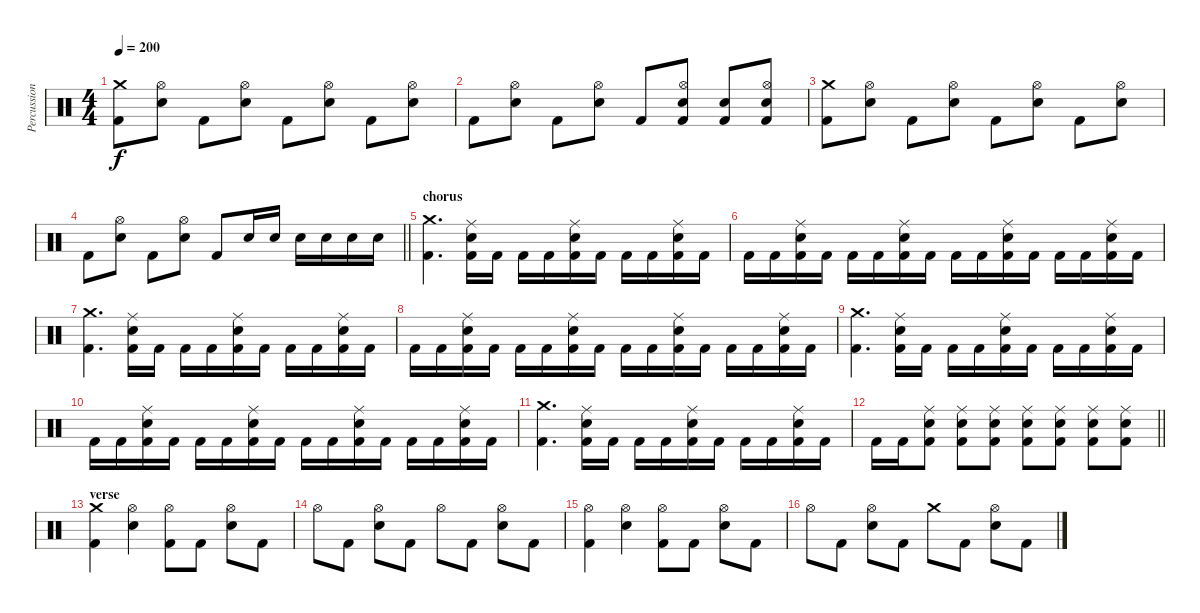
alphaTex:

\track ("Percussion" "Percussion") {instrument percussion}
\staff {score}
\articulation defaults
\ts (4 4)
\tempo 200
\clef neutral
\ks c
("Crash medium (hit)" "Kick (hit) 2").8{dy f} ("Hi-Hat (open)" "Electric Snare (hit)").8 "Kick (hit) 2".8 ("Hi-Hat (open)" "Electric Snare (hit)").8 "Kick (hit) 2".8 ("Hi-Hat (open)" "Electric Snare (hit)").8 "Kick (hit) 2".8 ("Hi-Hat (open)" "Electric Snare (hit)").8 |
"Kick (hit) 2".8 ("Hi-Hat (open)" "Electric Snare (hit)").8 "Kick (hit) 2".8 ("Hi-Hat (open)" "Electric Snare (hit)").8 "Kick (hit) 2".8 ("Hi-Hat (open)" "Electric Snare (hit)" "Kick (hit) 2").8 ("Electric Snare (hit)" "Kick (hit) 2").8 ("Hi-Hat (open)" "Electric Snare (hit)" "Kick (hit) 2").8 |
("Crash medium (hit)" "Kick (hit) 2").8 ("Hi-Hat (open)" "Electric Snare (hit)").8 "Kick (hit) 2".8 ("Hi-Hat (open)" "Electric Snare (hit)").8 "Kick (hit) 2".8 ("Hi-Hat (open)" "Electric Snare (hit)").8 "Kick (hit) 2".8 ("Hi-Hat (open)" "Electric Snare (hit)").8 |
\barLineRight lightlight "Kick (hit) 2".8
("Hi-Hat (open)" "Electric Snare (hit)").8 "Kick (hit) 2".8 ("Hi-Hat (open)" "Electric Snare (hit)").8 "Kick (hit) 2".8 "Electric Snare (hit)".16 "Electric Snare (hit)".16 "Electric Snare (hit)".16 "Electric Snare (hit)".16 "Electric Snare (hit)".16 "Electric Snare (hit)".16 |
\section ("" "chorus")
("Crash medium (hit)" "Kick (hit) 2").4{d} ("Ride (middle)" "Electric Snare (hit)" "Kick (hit) 2").16 "Kick (hit) 2".16 "Kick (hit) 2".16 "Kick (hit) 2".16 ("Ride (middle)" "Electric Snare (hit)" "Kick (hit) 2").16 "Kick (hit) 2".16 "Kick (hit) 2".16 "Kick (hit) 2".16 ("Ride (middle)" "Electric Snare (hit)" "Kick (hit) 2").16 "Kick (hit) 2".16 |
"Kick (hit) 2".16 "Kick (hit) 2".16 ("Ride (middle)" "Electric Snare (hit)" "Kick (hit) 2").16 "Kick (hit) 2".16 "Kick (hit) 2".16 "Kick (hit) 2".16 ("Ride (middle)" "Electric Snare (hit)" "Kick (hit) 2").16 "Kick (hit) 2".16 "Kick (hit) 2".16 "Kick (hit) 2".16 ("Ride (middle)" "Electric Snare (hit)" "Kick (hit) 2").16 "Kick (hit) 2".16 "Kick (hit) 2".16 "Kick (hit) 2".16 ("Ride (middle)" "Electric Snare (hit)" "Kick (hit) 2").16 "Kick (hit) 2".16 |
("Crash medium (hit)" "Kick (hit) 2").4{d} ("Ride (middle)" "Electric Snare (hit)" "Kick (hit) 2").16 "Kick (hit) 2".16 "Kick (hit) 2".16 "Kick (hit) 2".16 ("Ride (middle)" "Electric Snare (hit)" "Kick (hit) 2").16 "Kick (hit) 2".16 "Kick (hit) 2".16 "Kick (hit) 2".16 ("Ride (middle)" "Electric Snare (hit)" "Kick (hit) 2").16 "Kick (hit) 2".16 |
"Kick (hit) 2".16 "Kick (hit) 2".16 ("Ride (middle)" "Electric Snare (hit)" "Kick (hit) 2").16 "Kick (hit) 2".16 "Kick (hit) 2".16 "Kick (hit) 2".16 ("Ride (middle)" "Electric Snare (hit)" "Kick (hit) 2").16 "Kick (hit) 2".16 "Kick (hit) 2".16 "Kick (hit) 2".16 ("Ride (middle)" "Electric Snare (hit)" "Kick (hit) 2").16 "Kick (hit) 2".16 "Kick (hit) 2".16 "Kick (hit) 2".16 ("Ride (middle)" "Electric Snare (hit)" "Kick (hit) 2").16 "Kick (hit) 2".16 |
("Crash medium (hit)" "Kick (hit) 2").4{d} ("Ride (middle)" "Electric Snare (hit)" "Kick (hit) 2").16 "Kick (hit) 2".16 "Kick (hit) 2".16 "Kick (hit) 2".16 ("Ride (middle)" "Electric Snare (hit)" "Kick (hit) 2").16 "Kick (hit) 2".16 "Kick (hit) 2".16 "Kick (hit) 2".16 ("Ride (middle)" "Electric Snare (hit)" "Kick (hit) 2").16 "Kick (hit) 2".16 |
"Kick (hit) 2".16 "Kick (hit) 2".16 ("Ride (middle)" "Electric Snare (hit)" "Kick (hit) 2").16 "Kick (hit) 2".16 "Kick (hit) 2".16 "Kick (hit) 2".16 ("Ride (middle)" "Electric Snare (hit)" "Kick (hit) 2").16 "Kick (hit) 2".16 "Kick (hit) 2".16 "Kick (hit) 2".16 ("Ride (middle)" "Electric Snare (hit)" "Kick (hit) 2").16 "Kick (hit) 2".16 "Kick (hit) 2".16 "Kick (hit) 2".16 ("Ride (middle)" "Electric Snare (hit)" "Kick (hit) 2").16 "Kick (hit) 2".16 |
("Crash medium (hit)" "Kick (hit) 2").4{d} ("Ride (middle)" "Electric Snare (hit)" "Kick (hit) 2").16 "Kick (hit) 2".16 "Kick (hit) 2".16 "Kick (hit) 2".16 ("Ride (middle)" "Electric Snare (hit)" "Kick (hit) 2").16 "Kick (hit) 2".16 "Kick (hit) 2".16 "Kick (hit) 2".16 ("Ride (middle)" "Electric Snare (hit)" "Kick (hit) 2").16 "Kick (hit) 2".16 |
\barLineRight lightlight "Kick (hit) 2".16 "Kick (hit) 2".16
("Ride (middle)" "Electric Snare (hit)" "Kick (hit) 2").8 ("Ride (middle)" "Electric Snare (hit)" "Kick (hit) 2").8 ("Ride (middle)" "Electric Snare (hit)" "Kick (hit) 2").8 ("Ride (middle)" "Electric Snare (hit)" "Kick (hit) 2").8 ("Ride (middle)" "Electric Snare (hit)" "Kick (hit) 2").8 ("Ride (middle)" "Electric Snare (hit)" "Kick (hit) 2").8 ("Ride (middle)" "Electric Snare (hit)" "Kick (hit) 2").8 |
\section ("" "verse")
("Crash medium (hit)" "Kick (hit) 2").4 ("Hi-Hat (open)" "Electric Snare (hit)").4 ("Hi-Hat (open)" "Kick (hit) 2").8 "Kick (hit) 2".8 ("Hi-Hat (open)" "Electric Snare (hit)").8 "Kick (hit) 2".8 |
"Hi-Hat (open)".8 "Kick (hit) 2".8 ("Hi-Hat (open)" "Electric Snare (hit)").8 "Kick (hit) 2".8 "Hi-Hat (open)".8 "Kick (hit) 2".8 ("Hi-Hat (open)" "Electric Snare (hit)").8 "Kick (hit) 2".8 |
("Hi-Hat (open)" "Kick (hit) 2").4 ("Hi-Hat (open)" "Electric Snare (hit)").4 ("Hi-Hat (open)" "Kick (hit) 2").8 "Kick (hit) 2".8 ("Hi-Hat (open)" "Electric Snare (hit)").8 "Kick (hit) 2".8 |
"Hi-Hat (open)".8 "Kick (hit) 2".8 ("Hi-Hat (open)" "Electric Snare (hit)").8 "Kick (hit) 2".8 "Crash medium (hit)".8 "Kick (hit) 2".8 ("Hi-Hat (open)" "Electric Snare (hit)").8 "Kick (hit) 2".8
